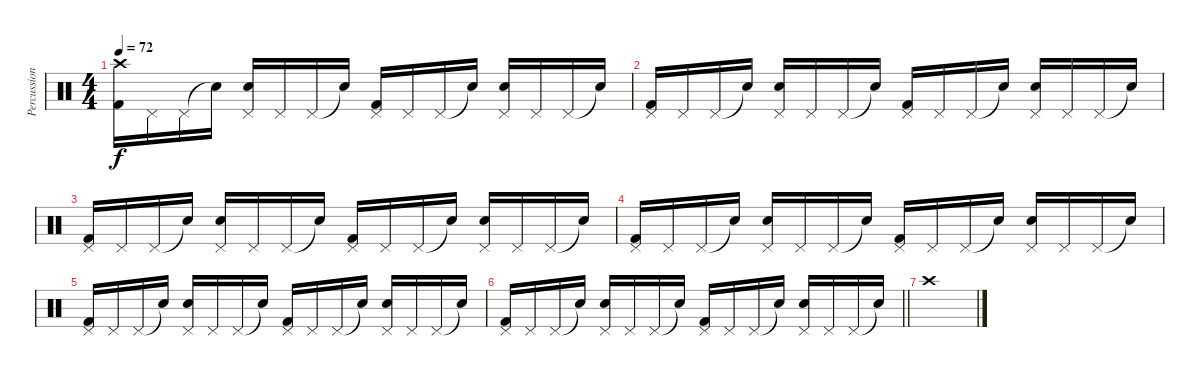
\track ("Percussion" "Percussion") {instrument percussion}
\staff {score}
\articulation defaults
\ts (4 4)
\tempo 72
\clef neutral
\ks c
("Crash high (hit)" "Kick (hit) 2").16{dy f} "Pedal Hi-Hat (hit)".16 "Pedal Hi-Hat (hit)".16 "Snare (hit)"{t}.16 ("Pedal Hi-Hat (hit)" "Electric Snare (hit)").16 "Pedal Hi-Hat (hit)".16 "Pedal Hi-Hat (hit)".16 "Snare (hit)"{t}.16 ("Pedal Hi-Hat (hit)" "Kick (hit) 2").16 "Pedal Hi-Hat (hit)".16 "Pedal Hi-Hat (hit)".16 "Snare (hit)"{t}.16 ("Pedal Hi-Hat (hit)" "Electric Snare (hit)").16 "Pedal Hi-Hat (hit)".16 "Pedal Hi-Hat (hit)".16 "Snare (hit)"{t}.16 |
("Pedal Hi-Hat (hit)" "Kick (hit) 2").16 "Pedal Hi-Hat (hit)".16 "Pedal Hi-Hat (hit)".16 "Snare (hit)"{t}.16 ("Pedal Hi-Hat (hit)" "Electric Snare (hit)").16 "Pedal Hi-Hat (hit)".16 "Pedal Hi-Hat (hit)".16 "Snare (hit)"{t}.16 ("Pedal Hi-Hat (hit)" "Kick (hit) 2").16 "Pedal Hi-Hat (hit)".16 "Pedal Hi-Hat (hit)".16 "Snare (hit)"{t}.16 ("Pedal Hi-Hat (hit)" "Electric Snare (hit)").16 "Pedal Hi-Hat (hit)".16 "Pedal Hi-Hat (hit)".16 "Snare (hit)"{t}.16 |
("Pedal Hi-Hat (hit)" "Kick (hit) 2").16 "Pedal Hi-Hat (hit)".16 "Pedal Hi-Hat (hit)".16 "Snare (hit)"{t}.16 ("Pedal Hi-Hat (hit)" "Electric Snare (hit)").16 "Pedal Hi-Hat (hit)".16 "Pedal Hi-Hat (hit)".16 "Snare (hit)"{t}.16 ("Pedal Hi-Hat (hit)" "Kick (hit) 2").16 "Pedal Hi-Hat (hit)".16 "Pedal Hi-Hat (hit)".16 "Snare (hit)"{t}.16 ("Pedal Hi-Hat (hit)" "Electric Snare (hit)").16 "Pedal Hi-Hat (hit)".16 "Pedal Hi-Hat (hit)".16 "Snare (hit)"{t}.16 |
("Pedal Hi-Hat (hit)" "Kick (hit) 2").16 "Pedal Hi-Hat (hit)".16 "Pedal Hi-Hat (hit)".16 "Snare (hit)"{t}.16 ("Pedal Hi-Hat (hit)" "Electric Snare (hit)").16 "Pedal Hi-Hat (hit)".16 "Pedal Hi-Hat (hit)".16 "Snare (hit)"{t}.16 ("Pedal Hi-Hat (hit)" "Kick (hit) 2").16 "Pedal Hi-Hat (hit)".16 "Pedal Hi-Hat (hit)".16 "Snare (hit)"{t}.16 ("Pedal Hi-Hat (hit)" "Electric Snare (hit)").16 "Pedal Hi-Hat (hit)".16 "Pedal Hi-Hat (hit)".16 "Snare (hit)"{t}.16 |
("Pedal Hi-Hat (hit)" "Kick (hit) 2").16 "Pedal Hi-Hat (hit)".16 "Pedal Hi-Hat (hit)".16 "Snare (hit)"{t}.16 ("Pedal Hi-Hat (hit)" "Electric Snare (hit)").16 "Pedal Hi-Hat (hit)".16 "Pedal Hi-Hat (hit)".16 "Snare (hit)"{t}.16 ("Pedal Hi-Hat (hit)" "Kick (hit) 2").16 "Pedal Hi-Hat (hit)".16 "Pedal Hi-Hat (hit)".16 "Snare (hit)"{t}.16 ("Pedal Hi-Hat (hit)" "Electric Snare (hit)").16 "Pedal Hi-Hat (hit)".16 "Pedal Hi-Hat (hit)".16 "Snare (hit)"{t}.16 |
\barLineRight lightlight
("Pedal Hi-Hat (hit)" "Kick (hit) 2").16 "Pedal Hi-Hat (hit)".16 "Pedal Hi-Hat (hit)".16 "Snare (hit)"{t}.16 ("Pedal Hi-Hat (hit)" "Electric Snare (hit)").16 "Pedal Hi-Hat (hit)".16 "Pedal Hi-Hat (hit)".16 "Snare (hit)"{t}.16 ("Pedal Hi-Hat (hit)" "Kick (hit) 2").16 "Pedal Hi-Hat (hit)".16 "Pedal Hi-Hat (hit)".16 "Snare (hit)"{t}.16 ("Pedal Hi-Hat (hit)" "Electric Snare (hit)").16 "Pedal Hi-Hat (hit)".16 "Pedal Hi-Hat (hit)".16 "Snare (hit)"{t}.16 |
"Crash high (hit)".1
